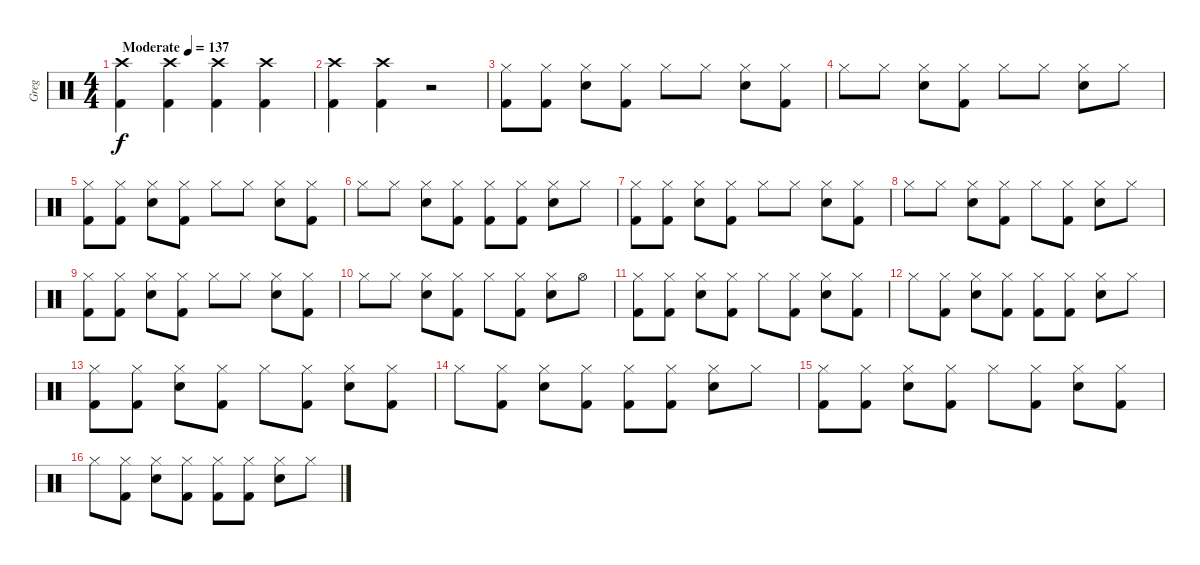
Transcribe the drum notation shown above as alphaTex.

\track ("Greg" "Greg") {instrument percussion}
\staff {score}
\articulation defaults
\ts (4 4)
\tempo (137 "Moderate")
\clef neutral
\ks c
("Crash high (hit)" "Kick (hit) 2").4{dy f} ("Crash high (hit)" "Kick (hit) 2").4 ("Crash high (hit)" "Kick (hit) 2").4 ("Crash high (hit)" "Kick (hit) 2").4 |
("Crash high (hit)" "Kick (hit) 2").4 ("Crash high (hit)" "Kick (hit) 2").4 r.2 |
("Hi-Hat (closed)" "Kick (hit) 2").8 ("Hi-Hat (closed)" "Kick (hit) 2").8 ("Hi-Hat (closed)" "Electric Snare (hit)").8 ("Hi-Hat (closed)" "Kick (hit) 2").8 "Hi-Hat (closed)".8 "Hi-Hat (closed)".8 ("Hi-Hat (closed)" "Electric Snare (hit)").8 ("Hi-Hat (closed)" "Kick (hit) 2").8 |
"Hi-Hat (closed)".8 "Hi-Hat (closed)".8 ("Hi-Hat (closed)" "Electric Snare (hit)").8 ("Hi-Hat (closed)" "Kick (hit) 2").8 "Hi-Hat (closed)".8 "Hi-Hat (closed)".8 ("Hi-Hat (closed)" "Electric Snare (hit)").8 "Hi-Hat (closed)".8 |
("Hi-Hat (closed)" "Kick (hit) 2").8 ("Hi-Hat (closed)" "Kick (hit) 2").8 ("Hi-Hat (closed)" "Electric Snare (hit)").8 ("Hi-Hat (closed)" "Kick (hit) 2").8 "Hi-Hat (closed)".8 "Hi-Hat (closed)".8 ("Hi-Hat (closed)" "Electric Snare (hit)").8 ("Hi-Hat (closed)" "Kick (hit) 2").8 |
"Hi-Hat (closed)".8 "Hi-Hat (closed)".8 ("Hi-Hat (closed)" "Electric Snare (hit)").8 ("Hi-Hat (closed)" "Kick (hit) 2").8 ("Hi-Hat (closed)" "Kick (hit) 2").8 ("Hi-Hat (closed)" "Kick (hit) 2").8 ("Hi-Hat (closed)" "Electric Snare (hit)").8 "Hi-Hat (closed)".8 |
("Hi-Hat (closed)" "Kick (hit) 2").8 ("Hi-Hat (closed)" "Kick (hit) 2").8 ("Hi-Hat (closed)" "Electric Snare (hit)").8 ("Hi-Hat (closed)" "Kick (hit) 2").8 "Hi-Hat (closed)".8 "Hi-Hat (closed)".8 ("Hi-Hat (closed)" "Electric Snare (hit)").8 ("Hi-Hat (closed)" "Kick (hit) 2").8 |
"Hi-Hat (closed)".8 "Hi-Hat (closed)".8 ("Hi-Hat (closed)" "Electric Snare (hit)").8 ("Hi-Hat (closed)" "Kick (hit) 2").8 "Hi-Hat (closed)".8 ("Hi-Hat (closed)" "Kick (hit) 2").8 ("Hi-Hat (closed)" "Electric Snare (hit)").8 "Hi-Hat (closed)".8 |
("Hi-Hat (closed)" "Kick (hit) 2").8 ("Hi-Hat (closed)" "Kick (hit) 2").8 ("Hi-Hat (closed)" "Electric Snare (hit)").8 ("Hi-Hat (closed)" "Kick (hit) 2").8 "Hi-Hat (closed)".8 "Hi-Hat (closed)".8 ("Hi-Hat (closed)" "Electric Snare (hit)").8 ("Hi-Hat (closed)" "Kick (hit) 2").8 |
"Hi-Hat (closed)".8 "Hi-Hat (closed)".8 ("Hi-Hat (closed)" "Electric Snare (hit)").8 ("Hi-Hat (closed)" "Kick (hit) 2").8 "Hi-Hat (closed)".8 ("Hi-Hat (closed)" "Kick (hit) 2").8 ("Hi-Hat (closed)" "Electric Snare (hit)").8 "Hi-Hat (open)".8 |
("Hi-Hat (closed)" "Kick (hit) 2").8 ("Hi-Hat (closed)" "Kick (hit) 2").8 ("Hi-Hat (closed)" "Electric Snare (hit)").8 ("Hi-Hat (closed)" "Kick (hit) 2").8 "Hi-Hat (closed)".8 ("Hi-Hat (closed)" "Kick (hit) 2").8 ("Hi-Hat (closed)" "Electric Snare (hit)").8 ("Hi-Hat (closed)" "Kick (hit) 2").8 |
"Hi-Hat (closed)".8 ("Hi-Hat (closed)" "Kick (hit) 2").8 ("Hi-Hat (closed)" "Electric Snare (hit)").8 ("Hi-Hat (closed)" "Kick (hit) 2").8 ("Hi-Hat (closed)" "Kick (hit) 2").8 ("Hi-Hat (closed)" "Kick (hit) 2").8 ("Hi-Hat (closed)" "Electric Snare (hit)").8 "Hi-Hat (closed)".8 |
("Hi-Hat (closed)" "Kick (hit) 2").8 ("Hi-Hat (closed)" "Kick (hit) 2").8 ("Hi-Hat (closed)" "Electric Snare (hit)").8 ("Hi-Hat (closed)" "Kick (hit) 2").8 "Hi-Hat (closed)".8 ("Hi-Hat (closed)" "Kick (hit) 2").8 ("Hi-Hat (closed)" "Electric Snare (hit)").8 ("Hi-Hat (closed)" "Kick (hit) 2").8 |
"Hi-Hat (closed)".8 ("Hi-Hat (closed)" "Kick (hit) 2").8 ("Hi-Hat (closed)" "Electric Snare (hit)").8 ("Hi-Hat (closed)" "Kick (hit) 2").8 ("Hi-Hat (closed)" "Kick (hit) 2").8 ("Hi-Hat (closed)" "Kick (hit) 2").8 ("Hi-Hat (closed)" "Electric Snare (hit)").8 "Hi-Hat (closed)".8 |
("Hi-Hat (closed)" "Kick (hit) 2").8 ("Hi-Hat (closed)" "Kick (hit) 2").8 ("Hi-Hat (closed)" "Electric Snare (hit)").8 ("Hi-Hat (closed)" "Kick (hit) 2").8 "Hi-Hat (closed)".8 ("Hi-Hat (closed)" "Kick (hit) 2").8 ("Hi-Hat (closed)" "Electric Snare (hit)").8 ("Hi-Hat (closed)" "Kick (hit) 2").8 |
"Hi-Hat (closed)".8 ("Hi-Hat (closed)" "Kick (hit) 2").8 ("Hi-Hat (closed)" "Electric Snare (hit)").8 ("Hi-Hat (closed)" "Kick (hit) 2").8 ("Hi-Hat (closed)" "Kick (hit) 2").8 ("Hi-Hat (closed)" "Kick (hit) 2").8 ("Hi-Hat (closed)" "Electric Snare (hit)").8 "Hi-Hat (closed)".8
